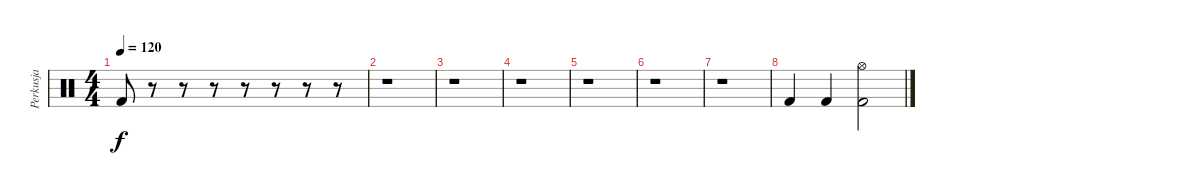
\track ("Perkusja" "Perkusja") {instrument percussion}
\staff {score}
\articulation defaults
\ts (4 4)
\tempo 120
\clef neutral
\ks c "Kick (hit) 2".8{dy f}
r.8 r.8 r.8 r.8 r.8 r.8 r.8 |
r.1 |
r.1 |
r.1 |
r.1 |
r.1 |
r.1 |
"Kick (hit) 2".4 "Kick (hit) 2".4 ("Kick (hit) 2" "Hi-Hat (open)").2
